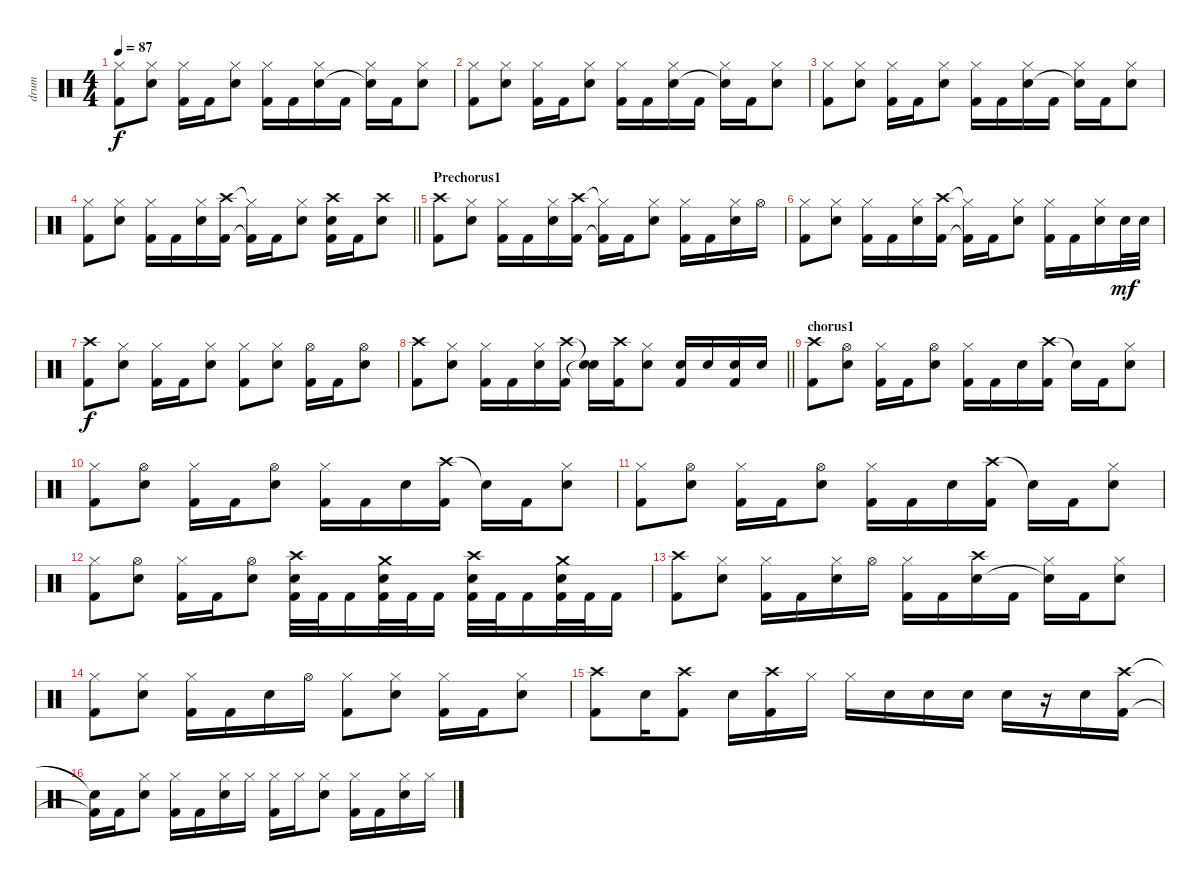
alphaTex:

\track ("drum" "drum") {instrument percussion}
\staff {score}
\articulation defaults
\ts (4 4)
\tempo 87
\clef neutral
\ks c
("Hi-Hat (closed)" "Kick (hit) 2").8{dy f} ("Hi-Hat (closed)" "Snare (hit) 2").8 ("Hi-Hat (closed)" "Kick (hit) 2").16 "Kick (hit) 2".16 ("Hi-Hat (closed)" "Snare (hit) 2").8 ("Hi-Hat (closed)" "Kick (hit) 2").16 "Kick (hit) 2".16 ("Hi-Hat (closed)" "Snare (hit) 2").16 "Kick (hit) 2".16 ("Hi-Hat (closed)" "Snare (hit)"{t}).16 "Kick (hit) 2".16 ("Hi-Hat (closed)" "Snare (hit) 2").8 |
("Hi-Hat (closed)" "Kick (hit) 2").8 ("Hi-Hat (closed)" "Snare (hit) 2").8 ("Hi-Hat (closed)" "Kick (hit) 2").16 "Kick (hit) 2".16 ("Hi-Hat (closed)" "Snare (hit) 2").8 ("Hi-Hat (closed)" "Kick (hit) 2").16 "Kick (hit) 2".16 ("Hi-Hat (closed)" "Snare (hit) 2").16 "Kick (hit) 2".16 ("Hi-Hat (closed)" "Snare (hit)"{t}).16 "Kick (hit) 2".16 ("Hi-Hat (closed)" "Snare (hit) 2").8 |
("Hi-Hat (closed)" "Kick (hit) 2").8 ("Hi-Hat (closed)" "Snare (hit) 2").8 ("Hi-Hat (closed)" "Kick (hit) 2").16 "Kick (hit) 2".16 ("Hi-Hat (closed)" "Snare (hit) 2").8 ("Hi-Hat (closed)" "Kick (hit) 2").16 "Kick (hit) 2".16 ("Hi-Hat (closed)" "Snare (hit) 2").16 "Kick (hit) 2".16 ("Hi-Hat (closed)" "Snare (hit)"{t}).16 "Kick (hit) 2".16 ("Hi-Hat (closed)" "Snare (hit) 2").8 |
\barLineRight lightlight
("Hi-Hat (closed)" "Kick (hit) 2").8 ("Hi-Hat (closed)" "Snare (hit) 2").8 ("Hi-Hat (closed)" "Kick (hit) 2").16 "Kick (hit) 2".16 ("Hi-Hat (closed)" "Snare (hit) 2").16 ("Crash high (hit)" "Kick (hit) 2").16 ("Hi-Hat (closed)"{t} "Kick (hit) 2"{t}).16 "Kick (hit) 2".16 ("Hi-Hat (closed)" "Snare (hit) 2").8 ("Crash high (hit)" "Snare (hit) 2" "Kick (hit) 2").16 "Kick (hit) 2".16 ("Crash high (hit)" "Snare (hit) 2").8 |
\section ("" "Prechorus1")
("Crash high (hit)" "Kick (hit) 2").8 ("Hi-Hat (closed)" "Snare (hit) 2").8 ("Hi-Hat (closed)" "Kick (hit) 2").16 "Kick (hit) 2".16 ("Hi-Hat (closed)" "Snare (hit) 2").16 ("Crash high (hit)" "Kick (hit) 2").16 ("Hi-Hat (closed)"{t} "Kick (hit) 2"{t}).16 "Kick (hit) 2".16 ("Hi-Hat (closed)" "Snare (hit) 2").8 ("Hi-Hat (closed)" "Kick (hit) 2").16 "Kick (hit) 2".16 ("Hi-Hat (closed)" "Snare (hit) 2").16 "Hi-Hat (open)".16 |
("Hi-Hat (closed)" "Kick (hit) 2").8 ("Hi-Hat (closed)" "Snare (hit) 2").8 ("Hi-Hat (closed)" "Kick (hit) 2").16 "Kick (hit) 2".16 ("Hi-Hat (closed)" "Snare (hit) 2").16 ("Crash high (hit)" "Kick (hit) 2").16 ("Hi-Hat (closed)"{t} "Kick (hit) 2"{t}).16 "Kick (hit) 2".16 ("Hi-Hat (closed)" "Snare (hit) 2").8 ("Hi-Hat (closed)" "Kick (hit) 2").16 "Kick (hit) 2".16 ("Hi-Hat (closed)" "Snare (hit) 2").16 "Snare (hit) 2".32{dy mf} "Snare (hit) 2".32 |
("Crash high (hit)" "Kick (hit) 2").8{dy f} ("Hi-Hat (closed)" "Snare (hit) 2").8 ("Hi-Hat (closed)" "Kick (hit) 2").16 "Kick (hit) 2".16 ("Hi-Hat (closed)" "Snare (hit) 2").8 ("Hi-Hat (closed)" "Kick (hit) 2").8 ("Hi-Hat (closed)" "Snare (hit) 2").8 ("Hi-Hat (open)" "Kick (hit) 2").16 "Kick (hit) 2".16 ("Hi-Hat (open)" "Snare (hit) 2").8 |
\barLineRight lightlight
("Crash high (hit)" "Kick (hit) 2").8 ("Hi-Hat (closed)" "Snare (hit) 2").8 ("Hi-Hat (closed)" "Kick (hit) 2").16 "Kick (hit) 2".16 ("Hi-Hat (closed)" "Snare (hit) 2").16 ("Crash high (hit)" "Kick (hit) 2").16 ("Snare (hit)"{t} "Snare (hit)"{t}).16 ("Crash high (hit)" "Kick (hit) 2").16 ("Hi-Hat (closed)" "Snare (hit) 2").8 ("Snare (hit) 2" "Kick (hit) 2").16 "Snare (hit) 2".16 ("Snare (hit) 2" "Kick (hit) 2").16 "Snare (hit) 2".16 |
\section ("" "chorus1")
("Crash high (hit)" "Kick (hit) 2").8 ("Hi-Hat (open)" "Snare (hit) 2").8 ("Hi-Hat (closed)" "Kick (hit) 2").16 "Kick (hit) 2".16 ("Hi-Hat (open)" "Snare (hit) 2").8 ("Hi-Hat (closed)" "Kick (hit) 2").16 "Kick (hit) 2".16 "Snare (hit) 2".16 ("Crash high (hit)" "Kick (hit) 2").16 "Snare (hit)"{t}.16 "Kick (hit) 2".16 ("Hi-Hat (closed)" "Snare (hit) 2").8 |
("Hi-Hat (closed)" "Kick (hit) 2").8 ("Hi-Hat (open)" "Snare (hit) 2").8 ("Hi-Hat (closed)" "Kick (hit) 2").16 "Kick (hit) 2".16 ("Hi-Hat (open)" "Snare (hit) 2").8 ("Hi-Hat (closed)" "Kick (hit) 2").16 "Kick (hit) 2".16 "Snare (hit) 2".16 ("Crash high (hit)" "Kick (hit) 2").16 "Snare (hit)"{t}.16 "Kick (hit) 2".16 ("Hi-Hat (closed)" "Snare (hit) 2").8 |
("Hi-Hat (closed)" "Kick (hit) 2").8 ("Hi-Hat (open)" "Snare (hit) 2").8 ("Hi-Hat (closed)" "Kick (hit) 2").16 "Kick (hit) 2".16 ("Hi-Hat (open)" "Snare (hit) 2").8 ("Hi-Hat (closed)" "Kick (hit) 2").16 "Kick (hit) 2".16 "Snare (hit) 2".16 ("Crash high (hit)" "Kick (hit) 2").16 "Snare (hit)"{t}.16 "Kick (hit) 2".16 ("Hi-Hat (closed)" "Snare (hit) 2").8 |
("Hi-Hat (closed)" "Kick (hit) 2").8 ("Hi-Hat (open)" "Snare (hit) 2").8 ("Hi-Hat (closed)" "Kick (hit) 2").16 "Kick (hit) 2".16 ("Hi-Hat (open)" "Snare (hit) 2").8 ("Crash high (hit)" "Snare (hit) 2" "Kick (hit) 2").32 "Kick (hit) 2".32 "Kick (hit) 2".16 ("Crash medium (hit)" "Snare (hit) 2" "Kick (hit) 2").32 "Kick (hit) 2".32 "Kick (hit) 2".16 ("Crash high (hit)" "Snare (hit) 2" "Kick (hit) 2").32 "Kick (hit) 2".32 "Kick (hit) 2".16 ("Crash medium (hit)" "Snare (hit) 2" "Kick (hit) 2").32 "Kick (hit) 2".32 "Kick (hit) 2".16 |
("Crash high (hit)" "Kick (hit) 2").8 ("Hi-Hat (closed)" "Snare (hit) 2").8 ("Hi-Hat (closed)" "Kick (hit) 2").16 "Kick (hit) 2".16 ("Hi-Hat (closed)" "Snare (hit) 2").16 "Hi-Hat (open)".16 ("Hi-Hat (closed)" "Kick (hit) 2").16 "Kick (hit) 2".16 ("Crash high (hit)" "Snare (hit) 2").16 "Kick (hit) 2".16 ("Hi-Hat (closed)" "Snare (hit)"{t}).16 "Kick (hit) 2".16 ("Hi-Hat (closed)" "Snare (hit) 2").8 |
("Hi-Hat (closed)" "Kick (hit) 2").8 ("Hi-Hat (closed)" "Snare (hit) 2").8 ("Hi-Hat (closed)" "Kick (hit) 2").16 "Kick (hit) 2".16 "Snare (hit) 2".16 "Hi-Hat (open)".16 ("Hi-Hat (closed)" "Kick (hit) 2").8 ("Hi-Hat (closed)" "Snare (hit) 2").8 ("Hi-Hat (closed)" "Kick (hit) 2").16 "Kick (hit) 2".16 ("Hi-Hat (closed)" "Snare (hit) 2").8 |
("Crash high (hit)" "Kick (hit) 2").8 "Snare (hit) 2".16 ("Crash high (hit)" "Kick (hit) 2").8 "Snare (hit) 2".16 ("Crash high (hit)" "Kick (hit) 2").16 "Hi-Hat (closed)".16 "Hi-Hat (closed)".16 "Snare (hit) 2".16 "Snare (hit) 2".16 "Snare (hit) 2".16 "Snare (hit) 2".16 r.16 "Snare (hit) 2".16 ("Crash high (hit)" "Kick (hit) 2").16 |
("Snare (hit)"{t} "Kick (hit) 2"{t}).16 "Kick (hit) 2".16 ("Hi-Hat (closed)" "Snare (hit) 2").8 ("Hi-Hat (closed)" "Kick (hit) 2").16 "Kick (hit) 2".16 ("Hi-Hat (closed)" "Snare (hit) 2").16 "Hi-Hat (closed)".16 ("Hi-Hat (closed)" "Kick (hit) 2").16 "Hi-Hat (closed)".16 ("Hi-Hat (closed)" "Snare (hit) 2").8 ("Hi-Hat (closed)" "Kick (hit) 2").16 "Kick (hit) 2".16 ("Hi-Hat (closed)" "Snare (hit) 2").16 "Hi-Hat (closed)".16
